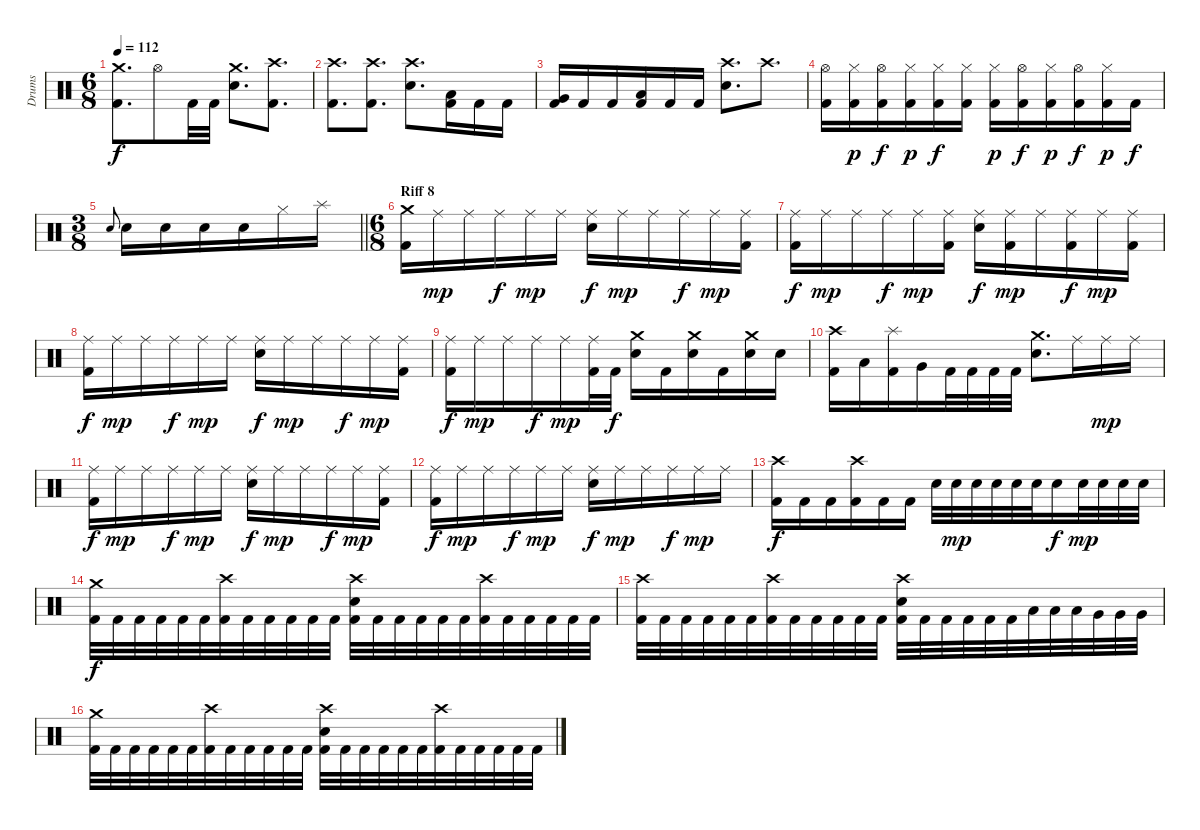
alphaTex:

\track ("Drums" "Drums") {instrument percussion}
\staff {score}
\articulation defaults
\ts (6 8)
\tempo 112
\clef neutral
\ks c
("Crash medium (hit)" "Kick (hit) 2").8{d dy f} "Hi-Hat (open)".8 "Kick (hit) 2".32 "Kick (hit) 2".32 ("Crash medium (hit)" "Electric Snare (hit)").8{d} ("Crash high (hit)" "Kick (hit) 2").8{d} |
("Crash high (hit)" "Kick (hit) 2").8{d} ("Crash high (hit)" "Kick (hit) 2").8{d} ("Crash high (hit)" "Electric Snare (hit)").8{d} ("Kick (hit) 2" "Low Tom (hit)").16 "Kick (hit) 2".16 "Kick (hit) 2".16 |
("Kick (hit) 2" "Very Low Tom (hit)").16 "Kick (hit) 2".16 "Kick (hit) 2".16 ("Low Floor Tom (hit)" "Kick (hit) 2").16 "Kick (hit) 2".16 "Kick (hit) 2".16 ("Electric Snare (hit)" "Crash high (hit)").8{d} "Crash high (hit)".8{d} |
("Hi-Hat (open)" "Kick (hit) 2").16 ("Hi-Hat (closed)" "Kick (hit) 2").16{dy p} ("Hi-Hat (open)" "Kick (hit) 2").16{dy f} ("Hi-Hat (closed)" "Kick (hit) 2").16{dy p} ("Hi-Hat (closed)" "Kick (hit) 2").16{dy f} ("Hi-Hat (closed)" "Kick (hit) 2").16 ("Hi-Hat (closed)" "Kick (hit) 2").16{dy p} ("Hi-Hat (open)" "Kick (hit) 2").16{dy f} ("Hi-Hat (closed)" "Kick (hit) 2").16{dy p} ("Hi-Hat (open)" "Kick (hit) 2").16{dy f} ("Hi-Hat (closed)" "Kick (hit) 2").16{dy p} "Kick (hit) 2".16{dy f} |
\ts (3 8)
\barLineRight lightlight "Electric Snare (hit)".8{gr onbeat} "Electric Snare (hit)".16 "Electric Snare (hit)".16 "Electric Snare (hit)".16 "Electric Snare (hit)".16 "Hi-Hat (closed)".16 "Splash (hit)".16
|
\ts (6 8)
\section ("" "Riff 8")
("Crash medium (hit)" "Kick (hit) 2").16 "Ride (middle)".16{dy mp} "Ride (middle)".16 "Ride (middle)".16{dy f} "Ride (middle)".16{dy mp} "Ride (middle)".16 ("Electric Snare (hit)" "Ride (middle)").16{dy f} "Ride (middle)".16{dy mp} "Ride (middle)".16 "Ride (middle)".16{dy f} "Ride (middle)".16{dy mp} ("Kick (hit) 2" "Ride (middle)").16 |
("Ride (middle)" "Kick (hit) 2").16{dy f} "Ride (middle)".16{dy mp} "Ride (middle)".16 "Ride (middle)".16{dy f} "Ride (middle)".16{dy mp} ("Kick (hit) 2" "Ride (middle)").16 ("Electric Snare (hit)" "Ride (middle)").16{dy f} ("Kick (hit) 2" "Ride (middle)").16{dy mp} "Ride (middle)".16 ("Kick (hit) 2" "Ride (middle)").16{dy f} "Ride (middle)".16{dy mp} ("Kick (hit) 2" "Ride (middle)").16 |
("Ride (middle)" "Kick (hit) 2").16{dy f} "Ride (middle)".16{dy mp} "Ride (middle)".16 "Ride (middle)".16{dy f} "Ride (middle)".16{dy mp} "Ride (middle)".16 ("Electric Snare (hit)" "Ride (middle)").16{dy f} "Ride (middle)".16{dy mp} "Ride (middle)".16 "Ride (middle)".16{dy f} "Ride (middle)".16{dy mp} ("Kick (hit) 2" "Ride (middle)").16 |
("Ride (middle)" "Kick (hit) 2").16{dy f} "Ride (middle)".16{dy mp} "Ride (middle)".16 "Ride (middle)".16{dy f} "Ride (middle)".16{dy mp} ("Kick (hit) 2" "Ride (middle)").32 "Kick (hit) 2".32{dy f} ("Electric Snare (hit)" "Crash medium (hit)").16 "Kick (hit) 2".16 ("Electric Snare (hit)" "Crash medium (hit)").16 "Kick (hit) 2".16 ("Electric Snare (hit)" "Crash medium (hit)").16 "Electric Snare (hit)".16 |
("Crash high (hit)" "Kick (hit) 2").16 "Low Tom (hit)".16 ("Kick (hit) 2" "Splash (hit)").16 "Very Low Tom (hit)".16 "Kick (hit) 2".32 "Kick (hit) 2".32 "Kick (hit) 2".32 "Kick (hit) 2".32 ("Electric Snare (hit)" "Crash medium (hit)").8{d} "Ride (middle)".16 "Ride (middle)".16{dy mp} "Ride (middle)".16 |
("Ride (middle)" "Kick (hit) 2").16{dy f} "Ride (middle)".16{dy mp} "Ride (middle)".16 "Ride (middle)".16{dy f} "Ride (middle)".16{dy mp} "Ride (middle)".16 ("Electric Snare (hit)" "Ride (middle)").16{dy f} "Ride (middle)".16{dy mp} "Ride (middle)".16 "Ride (middle)".16{dy f} "Ride (middle)".16{dy mp} ("Kick (hit) 2" "Ride (middle)").16 |
("Ride (middle)" "Kick (hit) 2").16{dy f} "Ride (middle)".16{dy mp} "Ride (middle)".16 "Ride (middle)".16{dy f} "Ride (middle)".16{dy mp} "Ride (middle)".16 ("Electric Snare (hit)" "Ride (middle)").16{dy f} "Ride (middle)".16{dy mp} "Ride (middle)".16 "Ride (middle)".16{dy f} "Ride (middle)".16{dy mp} "Ride (middle)".16 |
("Kick (hit) 2" "Crash high (hit)").16{dy f} "Kick (hit) 2".16 "Kick (hit) 2".16 ("Kick (hit) 2" "Crash high (hit)").16 "Kick (hit) 2".16 "Kick (hit) 2".16 "Electric Snare (hit)".32 "Electric Snare (hit)".32{dy mp} "Electric Snare (hit)".32 "Electric Snare (hit)".32 "Electric Snare (hit)".32 "Electric Snare (hit)".32 "Electric Snare (hit)".16{dy f} "Electric Snare (hit)".32{dy mp} "Electric Snare (hit)".32 "Electric Snare (hit)".32 "Electric Snare (hit)".32 |
("Kick (hit) 2" "Crash medium (hit)").32{dy f} "Kick (hit) 2".32 "Kick (hit) 2".32 "Kick (hit) 2".32 "Kick (hit) 2".32 "Kick (hit) 2".32 ("Kick (hit) 2" "Crash high (hit)").32 "Kick (hit) 2".32 "Kick (hit) 2".32 "Kick (hit) 2".32 "Kick (hit) 2".32 "Kick (hit) 2".32 ("Kick (hit) 2" "Crash high (hit)" "Electric Snare (hit)").32 "Kick (hit) 2".32 "Kick (hit) 2".32 "Kick (hit) 2".32 "Kick (hit) 2".32 "Kick (hit) 2".32 ("Kick (hit) 2" "Crash high (hit)").32 "Kick (hit) 2".32 "Kick (hit) 2".32 "Kick (hit) 2".32 "Kick (hit) 2".32 "Kick (hit) 2".32 |
("Kick (hit) 2" "Crash high (hit)").32 "Kick (hit) 2".32 "Kick (hit) 2".32 "Kick (hit) 2".32 "Kick (hit) 2".32 "Kick (hit) 2".32 ("Kick (hit) 2" "Crash high (hit)").32 "Kick (hit) 2".32 "Kick (hit) 2".32 "Kick (hit) 2".32 "Kick (hit) 2".32 "Kick (hit) 2".32 ("Kick (hit) 2" "Crash high (hit)" "Electric Snare (hit)").32 "Kick (hit) 2".32 "Kick (hit) 2".32 "Kick (hit) 2".32 "Kick (hit) 2".32 "Kick (hit) 2".32 "Low Tom (hit)".32 "Low Tom (hit)".32 "Low Tom (hit)".32 "Very Low Tom (hit)".32 "Very Low Tom (hit)".32 "Very Low Tom (hit)".32 |
("Kick (hit) 2" "Crash medium (hit)").32 "Kick (hit) 2".32 "Kick (hit) 2".32 "Kick (hit) 2".32 "Kick (hit) 2".32 "Kick (hit) 2".32 ("Kick (hit) 2" "Crash high (hit)").32 "Kick (hit) 2".32 "Kick (hit) 2".32 "Kick (hit) 2".32 "Kick (hit) 2".32 "Kick (hit) 2".32 ("Kick (hit) 2" "Crash high (hit)" "Electric Snare (hit)").32 "Kick (hit) 2".32 "Kick (hit) 2".32 "Kick (hit) 2".32 "Kick (hit) 2".32 "Kick (hit) 2".32 ("Kick (hit) 2" "Crash high (hit)").32 "Kick (hit) 2".32 "Kick (hit) 2".32 "Kick (hit) 2".32 "Kick (hit) 2".32 "Kick (hit) 2".32
